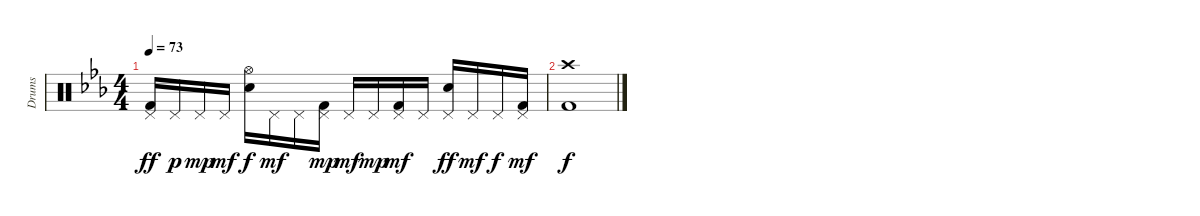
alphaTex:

\track ("Drums" "Drums") {instrument percussion}
\staff {score}
\articulation defaults
\ts (4 4)
\tempo 73
\clef neutral
\ks eb
("Kick (hit) 2" "Pedal Hi-Hat (hit)").16{dy ff} "Pedal Hi-Hat (hit)".16{dy p} "Pedal Hi-Hat (hit)".16{dy mp} "Pedal Hi-Hat (hit)".16{dy mf} ("Snare (hit) 2" "Hi-Hat (open)").16{dy f} "Pedal Hi-Hat (hit)".16{dy mf} "Pedal Hi-Hat (hit)".16 ("Kick (hit) 2" "Pedal Hi-Hat (hit)").16{dy mp} "Pedal Hi-Hat (hit)".16{dy mf} "Pedal Hi-Hat (hit)".16{dy mp} ("Kick (hit) 2" "Pedal Hi-Hat (hit)").16{dy mf} "Pedal Hi-Hat (hit)".16 ("Snare (hit) 2" "Pedal Hi-Hat (hit)").16{dy ff} "Pedal Hi-Hat (hit)".16{dy mf} "Pedal Hi-Hat (hit)".16{dy f} ("Kick (hit) 2" "Pedal Hi-Hat (hit)").16{dy mf} |
("Kick (hit) 2" "Crash high (hit)").1{dy f}
